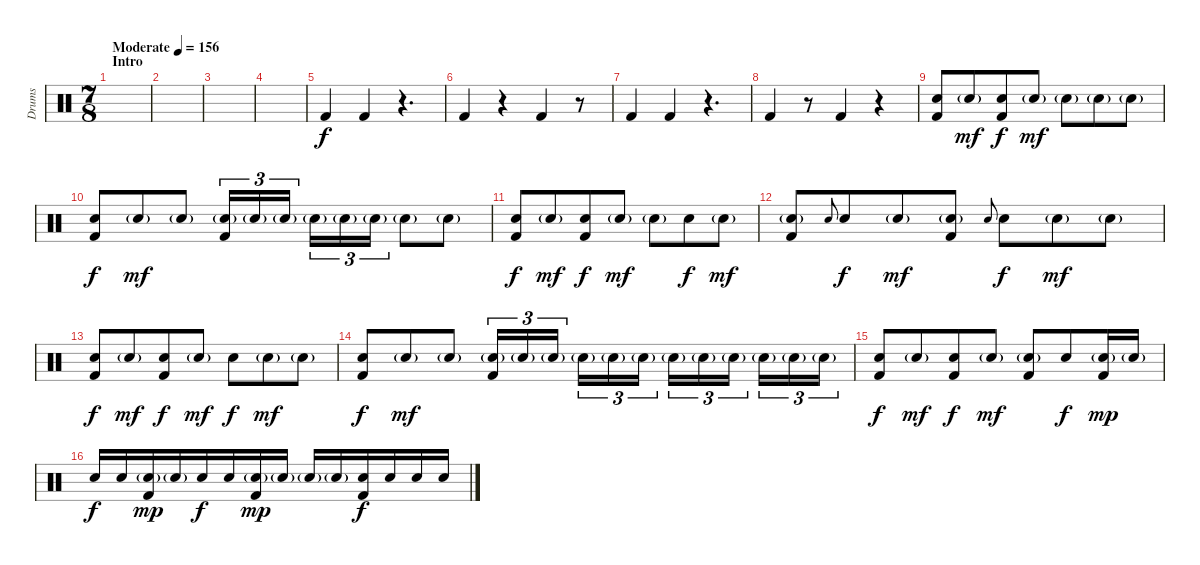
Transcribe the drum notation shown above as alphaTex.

\track ("Drums" "Drums") {instrument percussion}
\staff {score}
\articulation defaults
\ts (7 8)
\section ("" "Intro")
\tempo (156 "Moderate")
\clef neutral
\ks c
|
|
|
|
"Kick (hit) 2".4 "Kick (hit) 2".4 r.4{d} |
"Kick (hit) 2".4 r.4 "Kick (hit) 2".4 r.8 |
"Kick (hit) 2".4 "Kick (hit) 2".4 r.4{d} |
"Kick (hit) 2".4 r.8 "Kick (hit) 2".4 r.4 |
("Electric Snare (hit)" "Kick (hit) 2").8 "Electric Snare (hit)"{g}.8{dy mf} ("Electric Snare (hit)" "Kick (hit) 2").8{dy f} "Electric Snare (hit)"{g}.8{dy mf} "Electric Snare (hit)"{g}.8 "Electric Snare (hit)"{g}.8 "Electric Snare (hit)"{g}.8 |
("Electric Snare (hit)" "Kick (hit) 2").8{dy f} "Electric Snare (hit)"{g}.8{dy mf} "Electric Snare (hit)"{g}.8 ("Electric Snare (hit)"{g} "Kick (hit) 2").16{tu (3 2)} "Electric Snare (hit)"{g}.16{tu (3 2)} "Electric Snare (hit)"{g}.16{tu (3 2)} "Electric Snare (hit)"{g}.16{tu (3 2)} "Electric Snare (hit)"{g}.16{tu (3 2)} "Electric Snare (hit)"{g}.16{tu (3 2)} "Electric Snare (hit)"{g}.8 "Electric Snare (hit)"{g}.8 |
("Electric Snare (hit)" "Kick (hit) 2").8{dy f} "Electric Snare (hit)"{g}.8{dy mf} ("Electric Snare (hit)" "Kick (hit) 2").8{dy f} "Electric Snare (hit)"{g}.8{dy mf} "Electric Snare (hit)"{g}.8 "Electric Snare (hit)".8{dy f} "Electric Snare (hit)"{g}.8{dy mf} |
("Electric Snare (hit)"{g} "Kick (hit) 2").8 "Electric Snare (hit)".8{gr onbeat} "Electric Snare (hit)".8{dy f} "Electric Snare (hit)"{g}.8{dy mf} ("Electric Snare (hit)"{g} "Kick (hit) 2").8 "Electric Snare (hit)".8{gr onbeat} "Electric Snare (hit)".8{dy f} "Electric Snare (hit)"{g}.8{dy mf} "Electric Snare (hit)"{g}.8 |
("Electric Snare (hit)" "Kick (hit) 2").8{dy f} "Electric Snare (hit)"{g}.8{dy mf} ("Electric Snare (hit)" "Kick (hit) 2").8{dy f} "Electric Snare (hit)"{g}.8{dy mf} "Electric Snare (hit)".8{dy f} "Electric Snare (hit)"{g}.8{dy mf} "Electric Snare (hit)"{g}.8 |
("Electric Snare (hit)" "Kick (hit) 2").8{dy f} "Electric Snare (hit)"{g}.8{dy mf} "Electric Snare (hit)"{g}.8 ("Electric Snare (hit)"{g} "Kick (hit) 2").16{tu (3 2)} "Electric Snare (hit)"{g}.16{tu (3 2)} "Electric Snare (hit)"{g}.16{tu (3 2)} "Electric Snare (hit)"{g}.16{tu (3 2)} "Electric Snare (hit)"{g}.16{tu (3 2)} "Electric Snare (hit)"{g}.16{tu (3 2)} "Electric Snare (hit)"{g}.16{tu (3 2)} "Electric Snare (hit)"{g}.16{tu (3 2)} "Electric Snare (hit)"{g}.16{tu (3 2)} "Electric Snare (hit)"{g}.16{tu (3 2)} "Electric Snare (hit)"{g}.16{tu (3 2)} "Electric Snare (hit)"{g}.16{tu (3 2)} |
("Electric Snare (hit)" "Kick (hit) 2").8{dy f} "Electric Snare (hit)"{g}.8{dy mf} ("Electric Snare (hit)" "Kick (hit) 2").8{dy f} "Electric Snare (hit)"{g}.8{dy mf} ("Electric Snare (hit)"{g} "Kick (hit) 2").8 "Electric Snare (hit)".8{dy f} ("Electric Snare (hit)"{g} "Kick (hit) 2").16{dy mp} "Electric Snare (hit)"{g}.16 |
"Electric Snare (hit)".16{dy f} "Electric Snare (hit)".16 ("Electric Snare (hit)"{g} "Kick (hit) 2").16{dy mp} "Electric Snare (hit)"{g}.16 "Electric Snare (hit)".16{dy f} "Electric Snare (hit)".16 ("Electric Snare (hit)"{g} "Kick (hit) 2").16{dy mp} "Electric Snare (hit)"{g}.16 "Electric Snare (hit)"{g}.16 "Electric Snare (hit)"{g}.16 ("Electric Snare (hit)" "Kick (hit) 2").16{dy f} "Electric Snare (hit)".16 "Electric Snare (hit)".16 "Electric Snare (hit)".16
